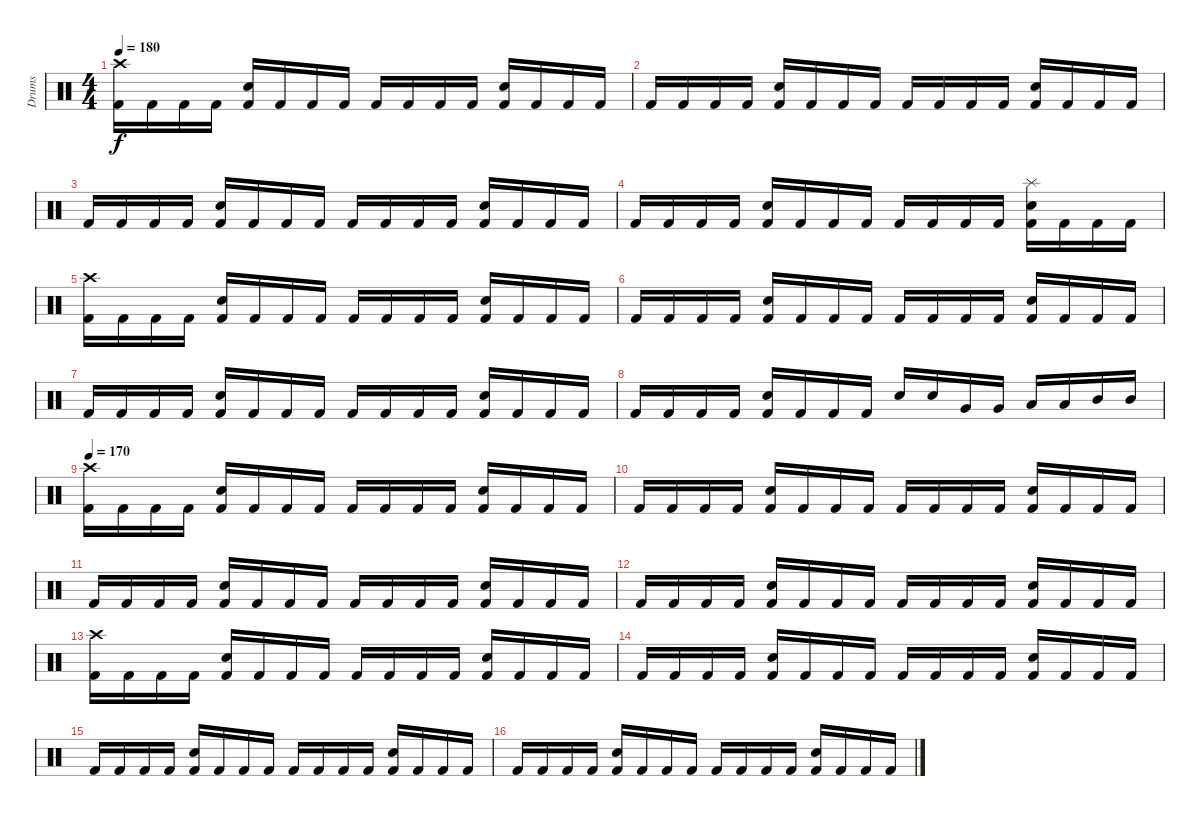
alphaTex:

\track ("Drums" "Drums") {instrument percussion}
\staff {score}
\articulation defaults
\ts (4 4)
\tempo 180
\clef neutral
\ks c
("Crash high (hit)" "Kick (hit) 2").16{dy f} "Kick (hit) 2".16 "Kick (hit) 2".16 "Kick (hit) 2".16 ("Snare (hit) 2" "Kick (hit) 2").16 "Kick (hit) 2".16 "Kick (hit) 2".16 "Kick (hit) 2".16 "Kick (hit) 2".16 "Kick (hit) 2".16 "Kick (hit) 2".16 "Kick (hit) 2".16 ("Snare (hit) 2" "Kick (hit) 2").16 "Kick (hit) 2".16 "Kick (hit) 2".16 "Kick (hit) 2".16 |
"Kick (hit) 2".16 "Kick (hit) 2".16 "Kick (hit) 2".16 "Kick (hit) 2".16 ("Snare (hit) 2" "Kick (hit) 2").16 "Kick (hit) 2".16 "Kick (hit) 2".16 "Kick (hit) 2".16 "Kick (hit) 2".16 "Kick (hit) 2".16 "Kick (hit) 2".16 "Kick (hit) 2".16 ("Snare (hit) 2" "Kick (hit) 2").16 "Kick (hit) 2".16 "Kick (hit) 2".16 "Kick (hit) 2".16 |
"Kick (hit) 2".16 "Kick (hit) 2".16 "Kick (hit) 2".16 "Kick (hit) 2".16 ("Snare (hit) 2" "Kick (hit) 2").16 "Kick (hit) 2".16 "Kick (hit) 2".16 "Kick (hit) 2".16 "Kick (hit) 2".16 "Kick (hit) 2".16 "Kick (hit) 2".16 "Kick (hit) 2".16 ("Snare (hit) 2" "Kick (hit) 2").16 "Kick (hit) 2".16 "Kick (hit) 2".16 "Kick (hit) 2".16 |
"Kick (hit) 2".16 "Kick (hit) 2".16 "Kick (hit) 2".16 "Kick (hit) 2".16 ("Snare (hit) 2" "Kick (hit) 2").16 "Kick (hit) 2".16 "Kick (hit) 2".16 "Kick (hit) 2".16 "Kick (hit) 2".16 "Kick (hit) 2".16 "Kick (hit) 2".16 "Kick (hit) 2".16 ("Splash (hit)" "Snare (hit) 2" "Kick (hit) 2").16 "Kick (hit) 2".16 "Kick (hit) 2".16 "Kick (hit) 2".16 |
("Crash high (hit)" "Kick (hit) 2").16 "Kick (hit) 2".16 "Kick (hit) 2".16 "Kick (hit) 2".16 ("Snare (hit) 2" "Kick (hit) 2").16 "Kick (hit) 2".16 "Kick (hit) 2".16 "Kick (hit) 2".16 "Kick (hit) 2".16 "Kick (hit) 2".16 "Kick (hit) 2".16 "Kick (hit) 2".16 ("Snare (hit) 2" "Kick (hit) 2").16 "Kick (hit) 2".16 "Kick (hit) 2".16 "Kick (hit) 2".16 |
"Kick (hit) 2".16 "Kick (hit) 2".16 "Kick (hit) 2".16 "Kick (hit) 2".16 ("Snare (hit) 2" "Kick (hit) 2").16 "Kick (hit) 2".16 "Kick (hit) 2".16 "Kick (hit) 2".16 "Kick (hit) 2".16 "Kick (hit) 2".16 "Kick (hit) 2".16 "Kick (hit) 2".16 ("Snare (hit) 2" "Kick (hit) 2").16 "Kick (hit) 2".16 "Kick (hit) 2".16 "Kick (hit) 2".16 |
"Kick (hit) 2".16 "Kick (hit) 2".16 "Kick (hit) 2".16 "Kick (hit) 2".16 ("Snare (hit) 2" "Kick (hit) 2").16 "Kick (hit) 2".16 "Kick (hit) 2".16 "Kick (hit) 2".16 "Kick (hit) 2".16 "Kick (hit) 2".16 "Kick (hit) 2".16 "Kick (hit) 2".16 ("Snare (hit) 2" "Kick (hit) 2").16 "Kick (hit) 2".16 "Kick (hit) 2".16 "Kick (hit) 2".16 |
"Kick (hit) 2".16 "Kick (hit) 2".16 "Kick (hit) 2".16 "Kick (hit) 2".16 ("Snare (hit) 2" "Kick (hit) 2").16 "Kick (hit) 2".16 "Kick (hit) 2".16 "Kick (hit) 2".16 "Snare (hit) 2".16 "Snare (hit) 2".16 "Very Low Tom (hit)".16 "Very Low Tom (hit)".16 "Low Tom (hit)".16 "Low Tom (hit)".16 "Mid Tom (hit)".16 "Mid Tom (hit)".16 |
\tempo 170
("Crash high (hit)" "Kick (hit) 2").16 "Kick (hit) 2".16 "Kick (hit) 2".16 "Kick (hit) 2".16 ("Snare (hit) 2" "Kick (hit) 2").16 "Kick (hit) 2".16 "Kick (hit) 2".16 "Kick (hit) 2".16 "Kick (hit) 2".16 "Kick (hit) 2".16 "Kick (hit) 2".16 "Kick (hit) 2".16 ("Snare (hit) 2" "Kick (hit) 2").16 "Kick (hit) 2".16 "Kick (hit) 2".16 "Kick (hit) 2".16 |
"Kick (hit) 2".16 "Kick (hit) 2".16 "Kick (hit) 2".16 "Kick (hit) 2".16 ("Snare (hit) 2" "Kick (hit) 2").16 "Kick (hit) 2".16 "Kick (hit) 2".16 "Kick (hit) 2".16 "Kick (hit) 2".16 "Kick (hit) 2".16 "Kick (hit) 2".16 "Kick (hit) 2".16 ("Snare (hit) 2" "Kick (hit) 2").16 "Kick (hit) 2".16 "Kick (hit) 2".16 "Kick (hit) 2".16 |
"Kick (hit) 2".16 "Kick (hit) 2".16 "Kick (hit) 2".16 "Kick (hit) 2".16 ("Snare (hit) 2" "Kick (hit) 2").16 "Kick (hit) 2".16 "Kick (hit) 2".16 "Kick (hit) 2".16 "Kick (hit) 2".16 "Kick (hit) 2".16 "Kick (hit) 2".16 "Kick (hit) 2".16 ("Snare (hit) 2" "Kick (hit) 2").16 "Kick (hit) 2".16 "Kick (hit) 2".16 "Kick (hit) 2".16 |
"Kick (hit) 2".16 "Kick (hit) 2".16 "Kick (hit) 2".16 "Kick (hit) 2".16 ("Snare (hit) 2" "Kick (hit) 2").16 "Kick (hit) 2".16 "Kick (hit) 2".16 "Kick (hit) 2".16 "Kick (hit) 2".16 "Kick (hit) 2".16 "Kick (hit) 2".16 "Kick (hit) 2".16 ("Snare (hit) 2" "Kick (hit) 2").16 "Kick (hit) 2".16 "Kick (hit) 2".16 "Kick (hit) 2".16 |
("Crash high (hit)" "Kick (hit) 2").16 "Kick (hit) 2".16 "Kick (hit) 2".16 "Kick (hit) 2".16 ("Snare (hit) 2" "Kick (hit) 2").16 "Kick (hit) 2".16 "Kick (hit) 2".16 "Kick (hit) 2".16 "Kick (hit) 2".16 "Kick (hit) 2".16 "Kick (hit) 2".16 "Kick (hit) 2".16 ("Snare (hit) 2" "Kick (hit) 2").16 "Kick (hit) 2".16 "Kick (hit) 2".16 "Kick (hit) 2".16 |
"Kick (hit) 2".16 "Kick (hit) 2".16 "Kick (hit) 2".16 "Kick (hit) 2".16 ("Snare (hit) 2" "Kick (hit) 2").16 "Kick (hit) 2".16 "Kick (hit) 2".16 "Kick (hit) 2".16 "Kick (hit) 2".16 "Kick (hit) 2".16 "Kick (hit) 2".16 "Kick (hit) 2".16 ("Snare (hit) 2" "Kick (hit) 2").16 "Kick (hit) 2".16 "Kick (hit) 2".16 "Kick (hit) 2".16 |
"Kick (hit) 2".16 "Kick (hit) 2".16 "Kick (hit) 2".16 "Kick (hit) 2".16 ("Snare (hit) 2" "Kick (hit) 2").16 "Kick (hit) 2".16 "Kick (hit) 2".16 "Kick (hit) 2".16 "Kick (hit) 2".16 "Kick (hit) 2".16 "Kick (hit) 2".16 "Kick (hit) 2".16 ("Snare (hit) 2" "Kick (hit) 2").16 "Kick (hit) 2".16 "Kick (hit) 2".16 "Kick (hit) 2".16 |
"Kick (hit) 2".16 "Kick (hit) 2".16 "Kick (hit) 2".16 "Kick (hit) 2".16 ("Snare (hit) 2" "Kick (hit) 2").16 "Kick (hit) 2".16 "Kick (hit) 2".16 "Kick (hit) 2".16 "Kick (hit) 2".16 "Kick (hit) 2".16 "Kick (hit) 2".16 "Kick (hit) 2".16 ("Snare (hit) 2" "Kick (hit) 2").16 "Kick (hit) 2".16 "Kick (hit) 2".16 "Kick (hit) 2".16
